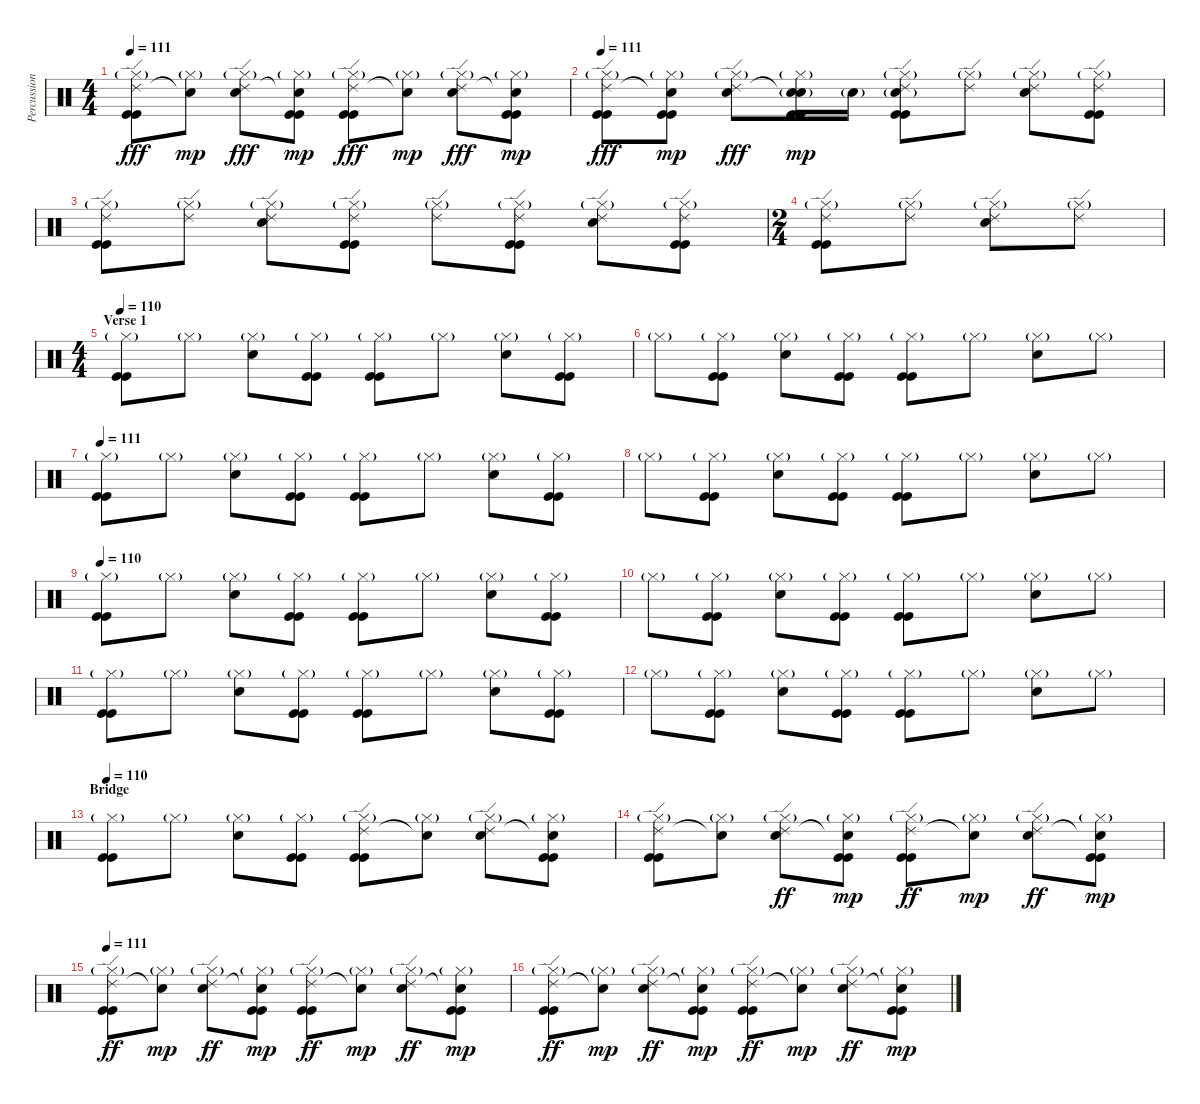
\track ("Percussion" "Percussion") {instrument percussion}
\staff {score}
\articulation defaults
\ts (4 4)
\tempo 111
\clef neutral
\ks c
("Hi-Hat (closed)"{g} "Ride (edge) 2" "Kick (hit)" "Kick (hit)").8{dy fff} ("Hi-Hat (closed)"{g} "Snare (hit)"{t}).8{dy mp} ("Hi-Hat (closed)"{g} "Ride (edge) 2" "Snare (hit) 2").8{dy fff} ("Hi-Hat (closed)"{g} "Snare (hit)"{t} "Kick (hit)" "Kick (hit)").8{dy mp} ("Hi-Hat (closed)"{g} "Ride (edge) 2" "Kick (hit)" "Kick (hit)").8{dy fff} ("Hi-Hat (closed)"{g} "Snare (hit)"{t}).8{dy mp} ("Hi-Hat (closed)"{g} "Ride (edge) 2" "Snare (hit) 2").8{dy fff} ("Hi-Hat (closed)"{g} "Snare (hit)"{t} "Kick (hit)" "Kick (hit)").8{dy mp} |
\tempo 111
("Hi-Hat (closed)"{g} "Ride (edge) 2" "Kick (hit)" "Kick (hit)").8{dy fff} ("Hi-Hat (closed)"{g} "Snare (hit)"{t} "Kick (hit)" "Kick (hit)").8{dy mp} ("Hi-Hat (closed)"{g} "Ride (edge) 2" "Snare (hit) 2").8{dy fff} ("Hi-Hat (closed)"{g} "Snare (hit)"{t} "Snare (hit) 2"{g} "Kick (hit)" "Kick (hit)").16{dy mp} "Snare (hit) 2"{g}.16 ("Hi-Hat (closed)"{g} "Ride (edge) 2" "Snare (hit) 2"{g} "Kick (hit)" "Kick (hit)").8 ("Hi-Hat (closed)"{g} "Ride (edge) 2").8 ("Hi-Hat (closed)"{g} "Ride (edge) 2" "Snare (hit) 2").8 ("Hi-Hat (closed)"{g} "Ride (edge) 2" "Kick (hit)" "Kick (hit)").8 |
("Hi-Hat (closed)"{g} "Ride (edge) 2" "Kick (hit)" "Kick (hit)").8 ("Hi-Hat (closed)"{g} "Ride (edge) 2").8 ("Hi-Hat (closed)"{g} "Ride (edge) 2" "Snare (hit) 2").8 ("Hi-Hat (closed)"{g} "Ride (edge) 2" "Kick (hit)" "Kick (hit)").8 ("Hi-Hat (closed)"{g} "Ride (edge) 2").8 ("Hi-Hat (closed)"{g} "Ride (edge) 2" "Kick (hit)" "Kick (hit)").8 ("Hi-Hat (closed)"{g} "Ride (edge) 2" "Snare (hit) 2").8 ("Hi-Hat (closed)"{g} "Ride (edge) 2" "Kick (hit)" "Kick (hit)").8 |
\ts (2 4)
("Hi-Hat (closed)"{g} "Ride (edge) 2" "Kick (hit)" "Kick (hit)").8 ("Hi-Hat (closed)"{g} "Ride (edge) 2").8 ("Hi-Hat (closed)"{g} "Ride (edge) 2" "Snare (hit) 2").8 ("Hi-Hat (closed)"{g} "Ride (edge) 2").8 |
\ts (4 4)
\section ("" "Verse 1")
\tempo 110
("Hi-Hat (closed)"{g} "Kick (hit)" "Kick (hit)").8 "Hi-Hat (closed)"{g}.8 ("Hi-Hat (closed)"{g} "Snare (hit) 2").8 ("Hi-Hat (closed)"{g} "Kick (hit)" "Kick (hit)").8 ("Hi-Hat (closed)"{g} "Kick (hit)" "Kick (hit)").8 "Hi-Hat (closed)"{g}.8 ("Hi-Hat (closed)"{g} "Snare (hit) 2").8 ("Hi-Hat (closed)"{g} "Kick (hit)" "Kick (hit)").8 |
"Hi-Hat (closed)"{g}.8 ("Hi-Hat (closed)"{g} "Kick (hit)" "Kick (hit)").8 ("Hi-Hat (closed)"{g} "Snare (hit) 2").8 ("Hi-Hat (closed)"{g} "Kick (hit)" "Kick (hit)").8 ("Hi-Hat (closed)"{g} "Kick (hit)" "Kick (hit)").8 "Hi-Hat (closed)"{g}.8 ("Hi-Hat (closed)"{g} "Snare (hit) 2").8 "Hi-Hat (closed)"{g}.8 |
\tempo 111
("Hi-Hat (closed)"{g} "Kick (hit)" "Kick (hit)").8 "Hi-Hat (closed)"{g}.8 ("Hi-Hat (closed)"{g} "Snare (hit) 2").8 ("Hi-Hat (closed)"{g} "Kick (hit)" "Kick (hit)").8 ("Hi-Hat (closed)"{g} "Kick (hit)" "Kick (hit)").8 "Hi-Hat (closed)"{g}.8 ("Hi-Hat (closed)"{g} "Snare (hit) 2").8 ("Hi-Hat (closed)"{g} "Kick (hit)" "Kick (hit)").8 |
"Hi-Hat (closed)"{g}.8 ("Hi-Hat (closed)"{g} "Kick (hit)" "Kick (hit)").8 ("Hi-Hat (closed)"{g} "Snare (hit) 2").8 ("Hi-Hat (closed)"{g} "Kick (hit)" "Kick (hit)").8 ("Hi-Hat (closed)"{g} "Kick (hit)" "Kick (hit)").8 "Hi-Hat (closed)"{g}.8 ("Hi-Hat (closed)"{g} "Snare (hit) 2").8 "Hi-Hat (closed)"{g}.8 |
\tempo 110
("Hi-Hat (closed)"{g} "Kick (hit)" "Kick (hit)").8 "Hi-Hat (closed)"{g}.8 ("Hi-Hat (closed)"{g} "Snare (hit) 2").8 ("Hi-Hat (closed)"{g} "Kick (hit)" "Kick (hit)").8 ("Hi-Hat (closed)"{g} "Kick (hit)" "Kick (hit)").8 "Hi-Hat (closed)"{g}.8 ("Hi-Hat (closed)"{g} "Snare (hit) 2").8 ("Hi-Hat (closed)"{g} "Kick (hit)" "Kick (hit)").8 |
"Hi-Hat (closed)"{g}.8 ("Hi-Hat (closed)"{g} "Kick (hit)" "Kick (hit)").8 ("Hi-Hat (closed)"{g} "Snare (hit) 2").8 ("Hi-Hat (closed)"{g} "Kick (hit)" "Kick (hit)").8 ("Hi-Hat (closed)"{g} "Kick (hit)" "Kick (hit)").8 "Hi-Hat (closed)"{g}.8 ("Hi-Hat (closed)"{g} "Snare (hit) 2").8 "Hi-Hat (closed)"{g}.8 |
("Hi-Hat (closed)"{g} "Kick (hit)" "Kick (hit)").8 "Hi-Hat (closed)"{g}.8 ("Hi-Hat (closed)"{g} "Snare (hit) 2").8 ("Hi-Hat (closed)"{g} "Kick (hit)" "Kick (hit)").8 ("Hi-Hat (closed)"{g} "Kick (hit)" "Kick (hit)").8 "Hi-Hat (closed)"{g}.8 ("Hi-Hat (closed)"{g} "Snare (hit) 2").8 ("Hi-Hat (closed)"{g} "Kick (hit)" "Kick (hit)").8 |
"Hi-Hat (closed)"{g}.8 ("Hi-Hat (closed)"{g} "Kick (hit)" "Kick (hit)").8 ("Hi-Hat (closed)"{g} "Snare (hit) 2").8 ("Hi-Hat (closed)"{g} "Kick (hit)" "Kick (hit)").8 ("Hi-Hat (closed)"{g} "Kick (hit)" "Kick (hit)").8 "Hi-Hat (closed)"{g}.8 ("Hi-Hat (closed)"{g} "Snare (hit) 2").8 "Hi-Hat (closed)"{g}.8 |
\section ("" "Bridge")
\tempo 110
("Hi-Hat (closed)"{g} "Kick (hit)" "Kick (hit)").8 "Hi-Hat (closed)"{g}.8 ("Hi-Hat (closed)"{g} "Snare (hit) 2").8 ("Hi-Hat (closed)"{g} "Kick (hit)" "Kick (hit)").8 ("Hi-Hat (closed)"{g} "Ride (edge) 2" "Kick (hit)" "Kick (hit)").8 ("Hi-Hat (closed)"{g} "Snare (hit)"{t}).8 ("Hi-Hat (closed)"{g} "Ride (edge) 2" "Snare (hit) 2").8 ("Hi-Hat (closed)"{g} "Snare (hit)"{t} "Kick (hit)" "Kick (hit)").8 |
("Hi-Hat (closed)"{g} "Ride (edge) 2" "Kick (hit)" "Kick (hit)").8 ("Hi-Hat (closed)"{g} "Snare (hit)"{t}).8 ("Hi-Hat (closed)"{g} "Ride (edge) 2" "Snare (hit) 2").8{dy ff} ("Hi-Hat (closed)"{g} "Snare (hit)"{t} "Kick (hit)" "Kick (hit)").8{dy mp} ("Hi-Hat (closed)"{g} "Ride (edge) 2" "Kick (hit)" "Kick (hit)").8{dy ff} ("Hi-Hat (closed)"{g} "Snare (hit)"{t}).8{dy mp} ("Hi-Hat (closed)"{g} "Ride (edge) 2" "Snare (hit) 2").8{dy ff} ("Hi-Hat (closed)"{g} "Snare (hit)"{t} "Kick (hit)" "Kick (hit)").8{dy mp} |
\tempo 111
("Hi-Hat (closed)"{g} "Ride (edge) 2" "Kick (hit)" "Kick (hit)").8{dy ff} ("Hi-Hat (closed)"{g} "Snare (hit)"{t}).8{dy mp} ("Hi-Hat (closed)"{g} "Ride (edge) 2" "Snare (hit) 2").8{dy ff} ("Hi-Hat (closed)"{g} "Snare (hit)"{t} "Kick (hit)" "Kick (hit)").8{dy mp} ("Hi-Hat (closed)"{g} "Ride (edge) 2" "Kick (hit)" "Kick (hit)").8{dy ff} ("Hi-Hat (closed)"{g} "Snare (hit)"{t}).8{dy mp} ("Hi-Hat (closed)"{g} "Ride (edge) 2" "Snare (hit) 2").8{dy ff} ("Hi-Hat (closed)"{g} "Snare (hit)"{t} "Kick (hit)" "Kick (hit)").8{dy mp} |
("Hi-Hat (closed)"{g} "Ride (edge) 2" "Kick (hit)" "Kick (hit)").8{dy ff} ("Hi-Hat (closed)"{g} "Snare (hit)"{t}).8{dy mp} ("Hi-Hat (closed)"{g} "Ride (edge) 2" "Snare (hit) 2").8{dy ff} ("Hi-Hat (closed)"{g} "Snare (hit)"{t} "Kick (hit)" "Kick (hit)").8{dy mp} ("Hi-Hat (closed)"{g} "Ride (edge) 2" "Kick (hit)" "Kick (hit)").8{dy ff} ("Hi-Hat (closed)"{g} "Snare (hit)"{t}).8{dy mp} ("Hi-Hat (closed)"{g} "Ride (edge) 2" "Snare (hit) 2").8{dy ff} ("Hi-Hat (closed)"{g} "Snare (hit)"{t} "Kick (hit)" "Kick (hit)").8{dy mp}
